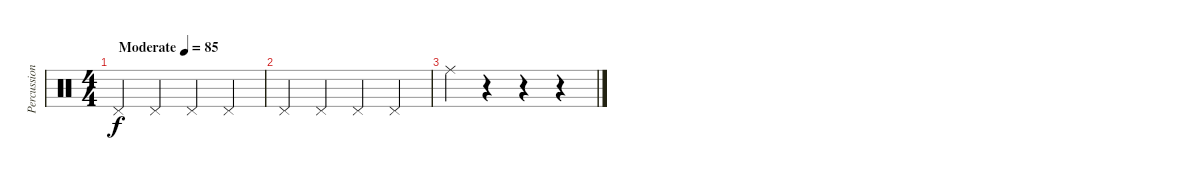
\track ("Percussion" "Percussion") {instrument percussion}
\staff {score}
\articulation defaults
\ts (4 4)
\tempo (85 "Moderate")
\clef neutral
\ks c "Pedal Hi-Hat (hit)".4{dy f} "Pedal Hi-Hat (hit)".4 "Pedal Hi-Hat (hit)".4 "Pedal Hi-Hat (hit)".4
|
"Pedal Hi-Hat (hit)".4 "Pedal Hi-Hat (hit)".4 "Pedal Hi-Hat (hit)".4 "Pedal Hi-Hat (hit)".4 |
"Ride (middle)".4 r.4 r.4 r.4
